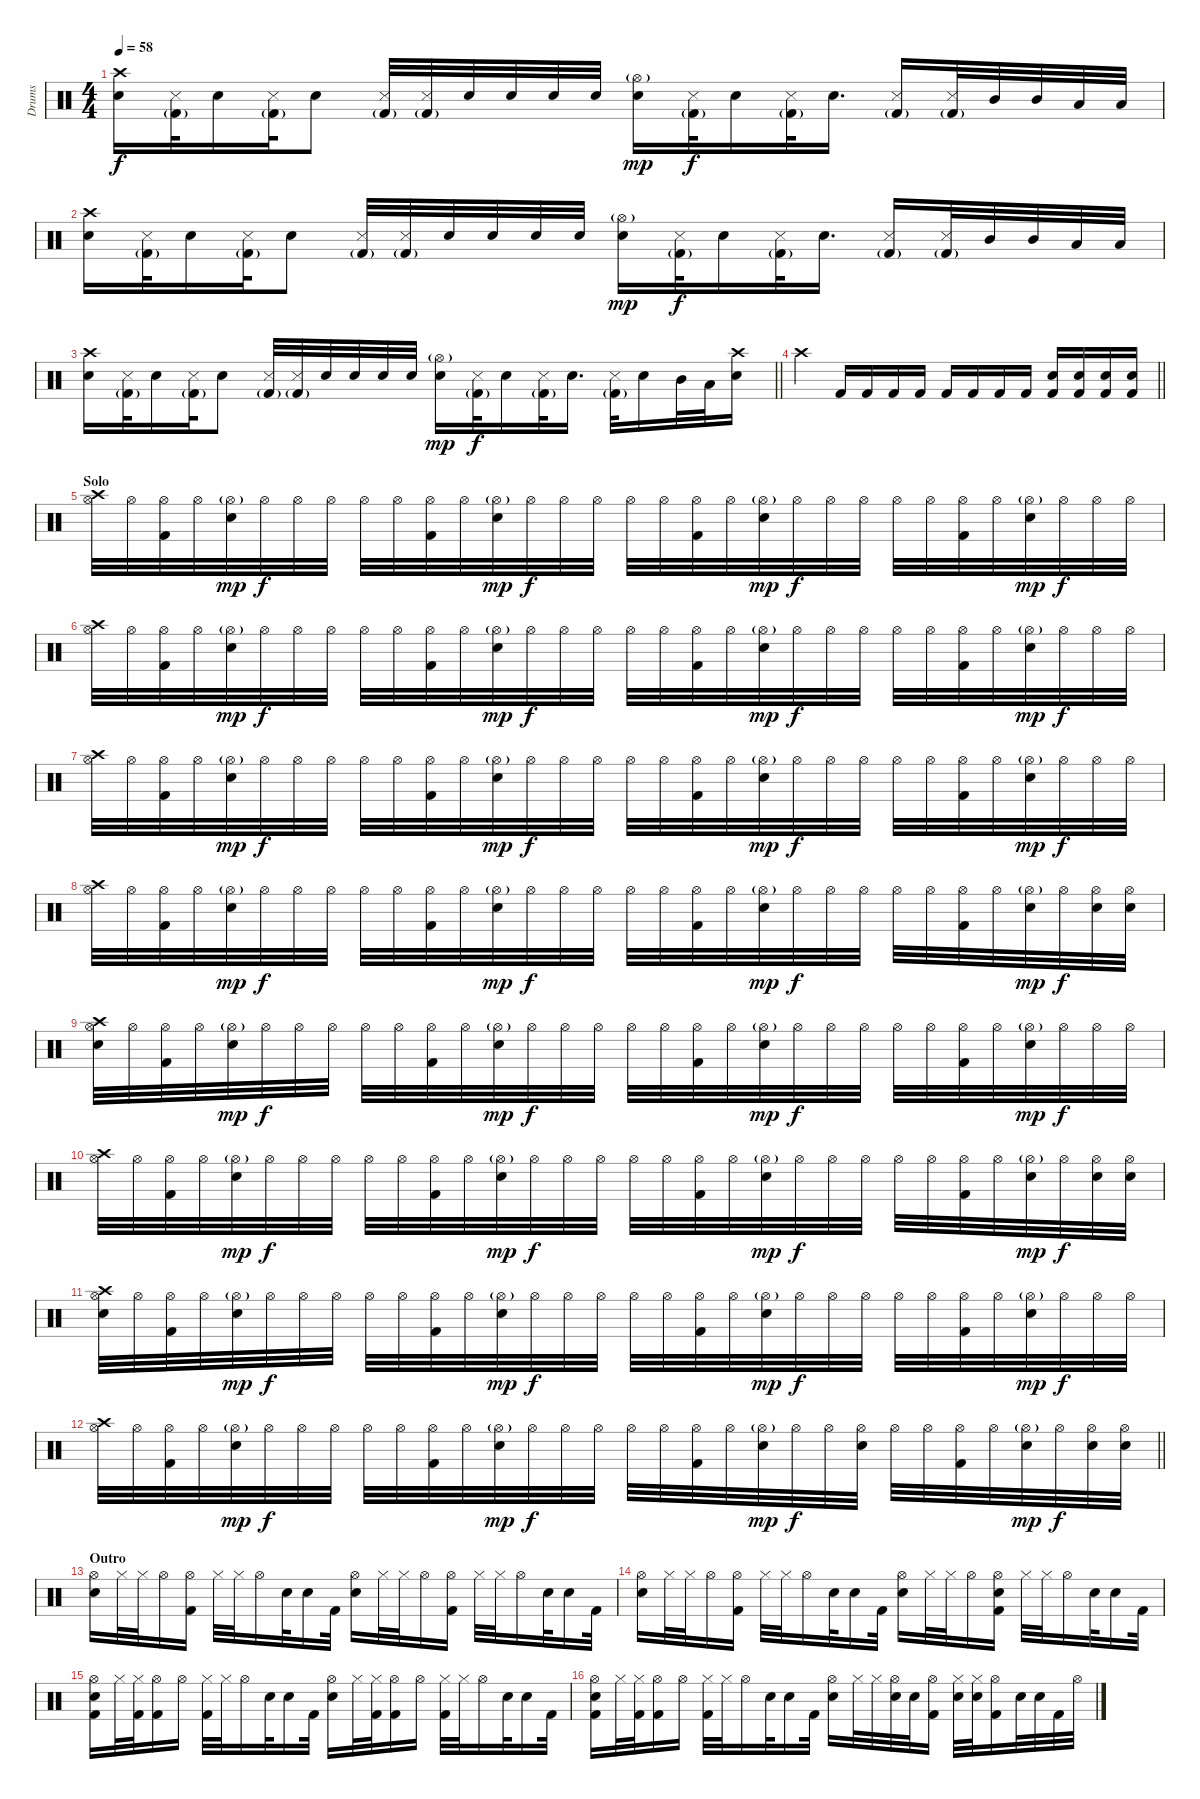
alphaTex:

\track ("Drums" "Drums") {instrument percussion}
\staff {score}
\articulation defaults
\ts (4 4)
\tempo 58
\clef neutral
\ks c
("Crash high (hit)" "Electric Snare (hit)").16{dy f} ("Metronome (hit)" "Kick (hit) 2"{g}).32 "Electric Snare (hit)".16 ("Metronome (hit)" "Kick (hit) 2"{g}).32 "Electric Snare (hit)".8 ("Metronome (hit)" "Kick (hit) 2"{g}).32 ("Metronome (hit)" "Kick (hit) 2"{g}).32 "Electric Snare (hit)".32 "Electric Snare (hit)".32 "Electric Snare (hit)".32 "Electric Snare (hit)".32 ("Hi-Hat (open)"{g} "Electric Snare (hit)").16{dy mp} ("Metronome (hit)" "Kick (hit) 2"{g}).32{dy f} "Electric Snare (hit)".16 ("Metronome (hit)" "Kick (hit) 2"{g}).32 "Electric Snare (hit)".16{d} ("Metronome (hit)" "Kick (hit) 2"{g}).16 ("Metronome (hit)" "Kick (hit) 2"{g}).32 "Mid Tom (hit)".32 "Mid Tom (hit)".32 "Low Tom (hit)".32 "Low Tom (hit)".32 |
("Crash high (hit)" "Electric Snare (hit)").16 ("Metronome (hit)" "Kick (hit) 2"{g}).32 "Electric Snare (hit)".16 ("Metronome (hit)" "Kick (hit) 2"{g}).32 "Electric Snare (hit)".8 ("Metronome (hit)" "Kick (hit) 2"{g}).32 ("Metronome (hit)" "Kick (hit) 2"{g}).32 "Electric Snare (hit)".32 "Electric Snare (hit)".32 "Electric Snare (hit)".32 "Electric Snare (hit)".32 ("Hi-Hat (open)"{g} "Electric Snare (hit)").16{dy mp} ("Metronome (hit)" "Kick (hit) 2"{g}).32{dy f} "Electric Snare (hit)".16 ("Metronome (hit)" "Kick (hit) 2"{g}).32 "Electric Snare (hit)".16{d} ("Metronome (hit)" "Kick (hit) 2"{g}).16 ("Metronome (hit)" "Kick (hit) 2"{g}).32 "Mid Tom (hit)".32 "Mid Tom (hit)".32 "Low Tom (hit)".32 "Low Tom (hit)".32 |
\barLineRight lightlight
("Crash high (hit)" "Electric Snare (hit)").16 ("Metronome (hit)" "Kick (hit) 2"{g}).32 "Electric Snare (hit)".16 ("Metronome (hit)" "Kick (hit) 2"{g}).32 "Electric Snare (hit)".8 ("Metronome (hit)" "Kick (hit) 2"{g}).32 ("Metronome (hit)" "Kick (hit) 2"{g}).32 "Electric Snare (hit)".32 "Electric Snare (hit)".32 "Electric Snare (hit)".32 "Electric Snare (hit)".32 ("Hi-Hat (open)"{g} "Electric Snare (hit)").16{dy mp} ("Metronome (hit)" "Kick (hit) 2"{g}).32{dy f} "Electric Snare (hit)".16 ("Metronome (hit)" "Kick (hit) 2"{g}).32 "Electric Snare (hit)".16{d} ("Metronome (hit)" "Kick (hit) 2"{g}).32 "Electric Snare (hit)".16 "Mid Tom (hit)".32 "Low Tom (hit)".32 ("Crash high (hit)" "Electric Snare (hit)").16 |
\barLineRight lightlight "Crash high (hit)".4 "Kick (hit) 2".16 "Kick (hit) 2".16 "Kick (hit) 2".16 "Kick (hit) 2".16 "Kick (hit) 2".16 "Kick (hit) 2".16 "Kick (hit) 2".16 "Kick (hit) 2".16
("Electric Snare (hit)" "Kick (hit) 2").16 ("Electric Snare (hit)" "Kick (hit) 2").16 ("Electric Snare (hit)" "Kick (hit) 2").16 ("Electric Snare (hit)" "Kick (hit) 2").16 |
\section ("" "Solo")
("Crash high (hit)" "Hi-Hat (open)").32 "Hi-Hat (open)".32 ("Hi-Hat (open)" "Kick (hit) 2").32 "Hi-Hat (open)".32 ("Electric Snare (hit)" "Hi-Hat (open)"{g}).32{dy mp} "Hi-Hat (open)".32{dy f} "Hi-Hat (open)".32 "Hi-Hat (open)".32 "Hi-Hat (open)".32 "Hi-Hat (open)".32 ("Hi-Hat (open)" "Kick (hit) 2").32 "Hi-Hat (open)".32 ("Electric Snare (hit)" "Hi-Hat (open)"{g}).32{dy mp} "Hi-Hat (open)".32{dy f} "Hi-Hat (open)".32 "Hi-Hat (open)".32 "Hi-Hat (open)".32 "Hi-Hat (open)".32 ("Hi-Hat (open)" "Kick (hit) 2").32 "Hi-Hat (open)".32 ("Electric Snare (hit)" "Hi-Hat (open)"{g}).32{dy mp} "Hi-Hat (open)".32{dy f} "Hi-Hat (open)".32 "Hi-Hat (open)".32 "Hi-Hat (open)".32 "Hi-Hat (open)".32 ("Hi-Hat (open)" "Kick (hit) 2").32 "Hi-Hat (open)".32 ("Electric Snare (hit)" "Hi-Hat (open)"{g}).32{dy mp} "Hi-Hat (open)".32{dy f} "Hi-Hat (open)".32 "Hi-Hat (open)".32 |
("Crash high (hit)" "Hi-Hat (open)").32 "Hi-Hat (open)".32 ("Hi-Hat (open)" "Kick (hit) 2").32 "Hi-Hat (open)".32 ("Electric Snare (hit)" "Hi-Hat (open)"{g}).32{dy mp} "Hi-Hat (open)".32{dy f} "Hi-Hat (open)".32 "Hi-Hat (open)".32 "Hi-Hat (open)".32 "Hi-Hat (open)".32 ("Hi-Hat (open)" "Kick (hit) 2").32 "Hi-Hat (open)".32 ("Electric Snare (hit)" "Hi-Hat (open)"{g}).32{dy mp} "Hi-Hat (open)".32{dy f} "Hi-Hat (open)".32 "Hi-Hat (open)".32 "Hi-Hat (open)".32 "Hi-Hat (open)".32 ("Hi-Hat (open)" "Kick (hit) 2").32 "Hi-Hat (open)".32 ("Electric Snare (hit)" "Hi-Hat (open)"{g}).32{dy mp} "Hi-Hat (open)".32{dy f} "Hi-Hat (open)".32 "Hi-Hat (open)".32 "Hi-Hat (open)".32 "Hi-Hat (open)".32 ("Hi-Hat (open)" "Kick (hit) 2").32 "Hi-Hat (open)".32 ("Electric Snare (hit)" "Hi-Hat (open)"{g}).32{dy mp} "Hi-Hat (open)".32{dy f} "Hi-Hat (open)".32 "Hi-Hat (open)".32 |
("Crash high (hit)" "Hi-Hat (open)").32 "Hi-Hat (open)".32 ("Hi-Hat (open)" "Kick (hit) 2").32 "Hi-Hat (open)".32 ("Electric Snare (hit)" "Hi-Hat (open)"{g}).32{dy mp} "Hi-Hat (open)".32{dy f} "Hi-Hat (open)".32 "Hi-Hat (open)".32 "Hi-Hat (open)".32 "Hi-Hat (open)".32 ("Hi-Hat (open)" "Kick (hit) 2").32 "Hi-Hat (open)".32 ("Electric Snare (hit)" "Hi-Hat (open)"{g}).32{dy mp} "Hi-Hat (open)".32{dy f} "Hi-Hat (open)".32 "Hi-Hat (open)".32 "Hi-Hat (open)".32 "Hi-Hat (open)".32 ("Hi-Hat (open)" "Kick (hit) 2").32 "Hi-Hat (open)".32 ("Electric Snare (hit)" "Hi-Hat (open)"{g}).32{dy mp} "Hi-Hat (open)".32{dy f} "Hi-Hat (open)".32 "Hi-Hat (open)".32 "Hi-Hat (open)".32 "Hi-Hat (open)".32 ("Hi-Hat (open)" "Kick (hit) 2").32 "Hi-Hat (open)".32 ("Electric Snare (hit)" "Hi-Hat (open)"{g}).32{dy mp} "Hi-Hat (open)".32{dy f} "Hi-Hat (open)".32 "Hi-Hat (open)".32 |
("Crash high (hit)" "Hi-Hat (open)").32 "Hi-Hat (open)".32 ("Hi-Hat (open)" "Kick (hit) 2").32 "Hi-Hat (open)".32 ("Electric Snare (hit)" "Hi-Hat (open)"{g}).32{dy mp} "Hi-Hat (open)".32{dy f} "Hi-Hat (open)".32 "Hi-Hat (open)".32 "Hi-Hat (open)".32 "Hi-Hat (open)".32 ("Hi-Hat (open)" "Kick (hit) 2").32 "Hi-Hat (open)".32 ("Electric Snare (hit)" "Hi-Hat (open)"{g}).32{dy mp} "Hi-Hat (open)".32{dy f} "Hi-Hat (open)".32 "Hi-Hat (open)".32 "Hi-Hat (open)".32 "Hi-Hat (open)".32 ("Hi-Hat (open)" "Kick (hit) 2").32 "Hi-Hat (open)".32 ("Electric Snare (hit)" "Hi-Hat (open)"{g}).32{dy mp} "Hi-Hat (open)".32{dy f} "Hi-Hat (open)".32 "Hi-Hat (open)".32 "Hi-Hat (open)".32 "Hi-Hat (open)".32 ("Hi-Hat (open)" "Kick (hit) 2").32 "Hi-Hat (open)".32 ("Electric Snare (hit)" "Hi-Hat (open)"{g}).32{dy mp} "Hi-Hat (open)".32{dy f} ("Electric Snare (hit)" "Hi-Hat (open)").32 ("Electric Snare (hit)" "Hi-Hat (open)").32 |
("Crash high (hit)" "Electric Snare (hit)" "Hi-Hat (open)").32 "Hi-Hat (open)".32 ("Hi-Hat (open)" "Kick (hit) 2").32 "Hi-Hat (open)".32 ("Electric Snare (hit)" "Hi-Hat (open)"{g}).32{dy mp} "Hi-Hat (open)".32{dy f} "Hi-Hat (open)".32 "Hi-Hat (open)".32 "Hi-Hat (open)".32 "Hi-Hat (open)".32 ("Hi-Hat (open)" "Kick (hit) 2").32 "Hi-Hat (open)".32 ("Electric Snare (hit)" "Hi-Hat (open)"{g}).32{dy mp} "Hi-Hat (open)".32{dy f} "Hi-Hat (open)".32 "Hi-Hat (open)".32 "Hi-Hat (open)".32 "Hi-Hat (open)".32 ("Hi-Hat (open)" "Kick (hit) 2").32 "Hi-Hat (open)".32 ("Electric Snare (hit)" "Hi-Hat (open)"{g}).32{dy mp} "Hi-Hat (open)".32{dy f} "Hi-Hat (open)".32 "Hi-Hat (open)".32 "Hi-Hat (open)".32 "Hi-Hat (open)".32 ("Hi-Hat (open)" "Kick (hit) 2").32 "Hi-Hat (open)".32 ("Electric Snare (hit)" "Hi-Hat (open)"{g}).32{dy mp} "Hi-Hat (open)".32{dy f} "Hi-Hat (open)".32 "Hi-Hat (open)".32 |
("Crash high (hit)" "Hi-Hat (open)").32 "Hi-Hat (open)".32 ("Hi-Hat (open)" "Kick (hit) 2").32 "Hi-Hat (open)".32 ("Electric Snare (hit)" "Hi-Hat (open)"{g}).32{dy mp} "Hi-Hat (open)".32{dy f} "Hi-Hat (open)".32 "Hi-Hat (open)".32 "Hi-Hat (open)".32 "Hi-Hat (open)".32 ("Hi-Hat (open)" "Kick (hit) 2").32 "Hi-Hat (open)".32 ("Electric Snare (hit)" "Hi-Hat (open)"{g}).32{dy mp} "Hi-Hat (open)".32{dy f} "Hi-Hat (open)".32 "Hi-Hat (open)".32 "Hi-Hat (open)".32 "Hi-Hat (open)".32 ("Hi-Hat (open)" "Kick (hit) 2").32 "Hi-Hat (open)".32 ("Electric Snare (hit)" "Hi-Hat (open)"{g}).32{dy mp} "Hi-Hat (open)".32{dy f} "Hi-Hat (open)".32 "Hi-Hat (open)".32 "Hi-Hat (open)".32 "Hi-Hat (open)".32 ("Hi-Hat (open)" "Kick (hit) 2").32 "Hi-Hat (open)".32 ("Electric Snare (hit)" "Hi-Hat (open)"{g}).32{dy mp} "Hi-Hat (open)".32{dy f} ("Electric Snare (hit)" "Hi-Hat (open)").32 ("Electric Snare (hit)" "Hi-Hat (open)").32 |
("Crash high (hit)" "Electric Snare (hit)" "Hi-Hat (open)").32 "Hi-Hat (open)".32 ("Hi-Hat (open)" "Kick (hit) 2").32 "Hi-Hat (open)".32 ("Electric Snare (hit)" "Hi-Hat (open)"{g}).32{dy mp} "Hi-Hat (open)".32{dy f} "Hi-Hat (open)".32 "Hi-Hat (open)".32 "Hi-Hat (open)".32 "Hi-Hat (open)".32 ("Hi-Hat (open)" "Kick (hit) 2").32 "Hi-Hat (open)".32 ("Electric Snare (hit)" "Hi-Hat (open)"{g}).32{dy mp} "Hi-Hat (open)".32{dy f} "Hi-Hat (open)".32 "Hi-Hat (open)".32 "Hi-Hat (open)".32 "Hi-Hat (open)".32 ("Hi-Hat (open)" "Kick (hit) 2").32 "Hi-Hat (open)".32 ("Electric Snare (hit)" "Hi-Hat (open)"{g}).32{dy mp} "Hi-Hat (open)".32{dy f} "Hi-Hat (open)".32 "Hi-Hat (open)".32 "Hi-Hat (open)".32 "Hi-Hat (open)".32 ("Hi-Hat (open)" "Kick (hit) 2").32 "Hi-Hat (open)".32 ("Electric Snare (hit)" "Hi-Hat (open)"{g}).32{dy mp} "Hi-Hat (open)".32{dy f} "Hi-Hat (open)".32 "Hi-Hat (open)".32 |
\barLineRight lightlight
("Crash high (hit)" "Hi-Hat (open)").32 "Hi-Hat (open)".32 ("Hi-Hat (open)" "Kick (hit) 2").32 "Hi-Hat (open)".32 ("Electric Snare (hit)" "Hi-Hat (open)"{g}).32{dy mp} "Hi-Hat (open)".32{dy f} "Hi-Hat (open)".32 "Hi-Hat (open)".32 "Hi-Hat (open)".32 "Hi-Hat (open)".32 ("Hi-Hat (open)" "Kick (hit) 2").32 "Hi-Hat (open)".32 ("Electric Snare (hit)" "Hi-Hat (open)"{g}).32{dy mp} "Hi-Hat (open)".32{dy f} "Hi-Hat (open)".32 "Hi-Hat (open)".32 "Hi-Hat (open)".32 "Hi-Hat (open)".32 ("Hi-Hat (open)" "Kick (hit) 2").32 "Hi-Hat (open)".32 ("Electric Snare (hit)" "Hi-Hat (open)"{g}).32{dy mp} "Hi-Hat (open)".32{dy f} "Hi-Hat (open)".32 ("Electric Snare (hit)" "Hi-Hat (open)").32 "Hi-Hat (open)".32 "Hi-Hat (open)".32 ("Hi-Hat (open)" "Kick (hit) 2").32 "Hi-Hat (open)".32 ("Electric Snare (hit)" "Hi-Hat (open)"{g}).32{dy mp} "Hi-Hat (open)".32{dy f} ("Electric Snare (hit)" "Hi-Hat (open)").32 ("Electric Snare (hit)" "Hi-Hat (open)").32 |
\section ("" "Outro")
("Hi-Hat (open)" "Electric Snare (hit)").16 "Hi-Hat (closed)".32 "Hi-Hat (closed)".32 "Hi-Hat (open)".16 ("Hi-Hat (open)" "Kick (hit) 2").16 "Hi-Hat (closed)".32 "Hi-Hat (closed)".32 "Hi-Hat (open)".16 "Electric Snare (hit)".32 "Electric Snare (hit)".16 "Kick (hit) 2".32 ("Hi-Hat (open)" "Electric Snare (hit)").16 "Hi-Hat (closed)".32 "Hi-Hat (closed)".32 "Hi-Hat (open)".16 ("Hi-Hat (open)" "Kick (hit) 2").16 "Hi-Hat (closed)".32 "Hi-Hat (closed)".32 "Hi-Hat (open)".16 "Electric Snare (hit)".32 "Electric Snare (hit)".16 "Kick (hit) 2".32 |
("Hi-Hat (open)" "Electric Snare (hit)").16 "Hi-Hat (closed)".32 "Hi-Hat (closed)".32 "Hi-Hat (open)".16 ("Hi-Hat (open)" "Kick (hit) 2").16 "Hi-Hat (closed)".32 "Hi-Hat (closed)".32 "Hi-Hat (open)".16 "Electric Snare (hit)".32 "Electric Snare (hit)".16 "Kick (hit) 2".32 ("Hi-Hat (open)" "Electric Snare (hit)").16 "Hi-Hat (closed)".32 "Hi-Hat (closed)".32 "Hi-Hat (open)".16 ("Hi-Hat (open)" "Electric Snare (hit)" "Kick (hit) 2").16 "Hi-Hat (closed)".32 "Hi-Hat (closed)".32 "Hi-Hat (open)".16 "Electric Snare (hit)".32 "Electric Snare (hit)".16 "Kick (hit) 2".32 |
("Hi-Hat (open)" "Electric Snare (hit)" "Kick (hit) 2").16 "Hi-Hat (closed)".32 ("Hi-Hat (closed)" "Kick (hit) 2").32 ("Hi-Hat (open)" "Kick (hit) 2").16 "Hi-Hat (open)".16 ("Hi-Hat (closed)" "Kick (hit) 2").32 "Hi-Hat (closed)".32 "Hi-Hat (open)".16 "Electric Snare (hit)".32 "Electric Snare (hit)".16 "Kick (hit) 2".32 ("Hi-Hat (open)" "Electric Snare (hit)").16 "Hi-Hat (closed)".32 ("Hi-Hat (closed)" "Kick (hit) 2").32 ("Hi-Hat (open)" "Kick (hit) 2").16 "Hi-Hat (open)".16 ("Hi-Hat (closed)" "Kick (hit) 2").32 "Hi-Hat (closed)".32 "Hi-Hat (open)".16 "Electric Snare (hit)".32 "Electric Snare (hit)".16 "Kick (hit) 2".32 |
("Hi-Hat (open)" "Electric Snare (hit)" "Kick (hit) 2").16 "Hi-Hat (closed)".32 ("Hi-Hat (closed)" "Kick (hit) 2").32 ("Hi-Hat (open)" "Kick (hit) 2").16 "Hi-Hat (open)".16 ("Hi-Hat (closed)" "Kick (hit) 2").32 "Hi-Hat (closed)".32 "Hi-Hat (open)".16 "Electric Snare (hit)".32 "Electric Snare (hit)".16 "Kick (hit) 2".32 ("Hi-Hat (open)" "Electric Snare (hit)").16 "Hi-Hat (closed)".32 "Hi-Hat (closed)".32 ("Hi-Hat (open)" "Electric Snare (hit)").32 "Electric Snare (hit)".32 ("Hi-Hat (open)" "Kick (hit) 2").16 ("Hi-Hat (closed)" "Electric Snare (hit)").32 ("Hi-Hat (closed)" "Electric Snare (hit)").32 ("Hi-Hat (open)" "Kick (hit) 2").16 "Electric Snare (hit)".32 "Electric Snare (hit)".32 "Kick (hit) 2".32 "Hi-Hat (open)".32
